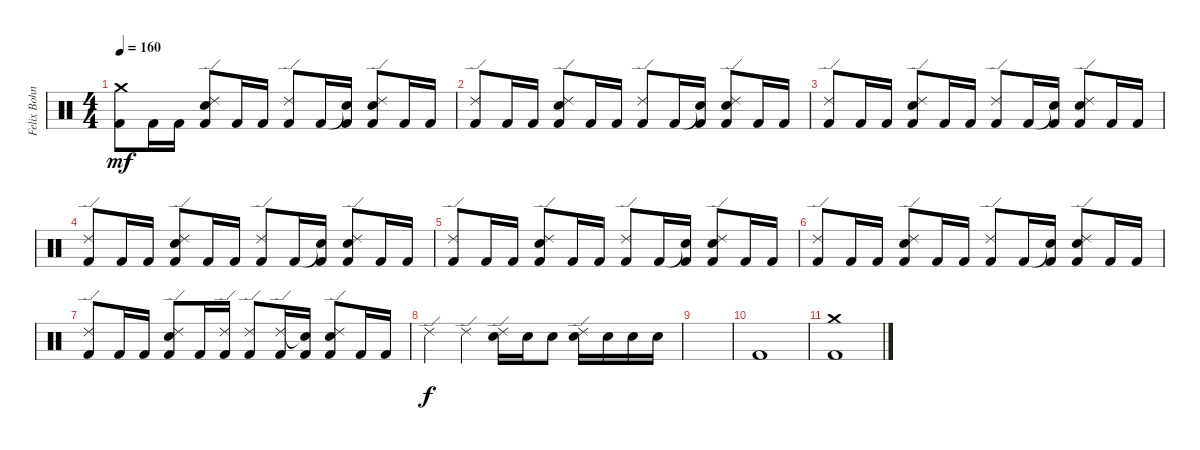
\track ("Felix Bohnke" "Felix Bohn") {instrument percussion}
\staff {score}
\articulation defaults
\ts (4 4)
\tempo 160
\clef neutral
\ks c
("Crash medium (hit)" "Kick (hit) 2").8{dy mf} "Kick (hit) 2".16 "Kick (hit) 2".16 ("Ride (edge) 2" "Electric Snare (hit)" "Kick (hit) 2").8 "Kick (hit) 2".16 "Kick (hit) 2".16 ("Ride (edge) 2" "Kick (hit) 2").8 "Kick (hit) 2".16 ("Snare (hit)"{t} "Kick (hit) 2").16 ("Ride (edge) 2" "Electric Snare (hit)" "Kick (hit) 2").8 "Kick (hit) 2".16 "Kick (hit) 2".16 |
("Ride (edge) 2" "Kick (hit) 2").8 "Kick (hit) 2".16 "Kick (hit) 2".16 ("Ride (edge) 2" "Electric Snare (hit)" "Kick (hit) 2").8 "Kick (hit) 2".16 "Kick (hit) 2".16 ("Ride (edge) 2" "Kick (hit) 2").8 "Kick (hit) 2".16 ("Snare (hit)"{t} "Kick (hit) 2").16 ("Ride (edge) 2" "Electric Snare (hit)" "Kick (hit) 2").8 "Kick (hit) 2".16 "Kick (hit) 2".16 |
("Ride (edge) 2" "Kick (hit) 2").8 "Kick (hit) 2".16 "Kick (hit) 2".16 ("Ride (edge) 2" "Electric Snare (hit)" "Kick (hit) 2").8 "Kick (hit) 2".16 "Kick (hit) 2".16 ("Ride (edge) 2" "Kick (hit) 2").8 "Kick (hit) 2".16 ("Snare (hit)"{t} "Kick (hit) 2").16 ("Ride (edge) 2" "Electric Snare (hit)" "Kick (hit) 2").8 "Kick (hit) 2".16 "Kick (hit) 2".16 |
("Ride (edge) 2" "Kick (hit) 2").8 "Kick (hit) 2".16 "Kick (hit) 2".16 ("Ride (edge) 2" "Electric Snare (hit)" "Kick (hit) 2").8 "Kick (hit) 2".16 "Kick (hit) 2".16 ("Ride (edge) 2" "Kick (hit) 2").8 "Kick (hit) 2".16 ("Snare (hit)"{t} "Kick (hit) 2").16 ("Ride (edge) 2" "Electric Snare (hit)" "Kick (hit) 2").8 "Kick (hit) 2".16 "Kick (hit) 2".16 |
("Ride (edge) 2" "Kick (hit) 2").8 "Kick (hit) 2".16 "Kick (hit) 2".16 ("Ride (edge) 2" "Electric Snare (hit)" "Kick (hit) 2").8 "Kick (hit) 2".16 "Kick (hit) 2".16 ("Ride (edge) 2" "Kick (hit) 2").8 "Kick (hit) 2".16 ("Snare (hit)"{t} "Kick (hit) 2").16 ("Ride (edge) 2" "Electric Snare (hit)" "Kick (hit) 2").8 "Kick (hit) 2".16 "Kick (hit) 2".16 |
("Ride (edge) 2" "Kick (hit) 2").8 "Kick (hit) 2".16 "Kick (hit) 2".16 ("Ride (edge) 2" "Electric Snare (hit)" "Kick (hit) 2").8 "Kick (hit) 2".16 "Kick (hit) 2".16 ("Ride (edge) 2" "Kick (hit) 2").8 "Kick (hit) 2".16 ("Snare (hit)"{t} "Kick (hit) 2").16 ("Ride (edge) 2" "Electric Snare (hit)" "Kick (hit) 2").8 "Kick (hit) 2".16 "Kick (hit) 2".16 |
("Ride (edge) 2" "Kick (hit) 2").8 "Kick (hit) 2".16 "Kick (hit) 2".16 ("Ride (edge) 2" "Electric Snare (hit)" "Kick (hit) 2").8 "Kick (hit) 2".16 ("Ride (edge) 2" "Kick (hit) 2").16 ("Ride (edge) 2" "Kick (hit) 2").8 ("Ride (edge) 2" "Kick (hit) 2").16 ("Snare (hit)"{t} "Kick (hit) 2").16 ("Ride (edge) 2" "Electric Snare (hit)" "Kick (hit) 2").8 "Kick (hit) 2".16 "Kick (hit) 2".16 |
"Ride (edge) 2".4{dy f} "Ride (edge) 2".4 ("Ride (edge) 2" "Electric Snare (hit)").16 "Electric Snare (hit)".16 "Electric Snare (hit)".8 ("Ride (edge) 2" "Electric Snare (hit)").16 "Electric Snare (hit)".16 "Electric Snare (hit)".16 "Electric Snare (hit)".16 |
|
"Kick (hit) 2".1 |
("Crash medium (hit)" "Kick (hit) 2").1
